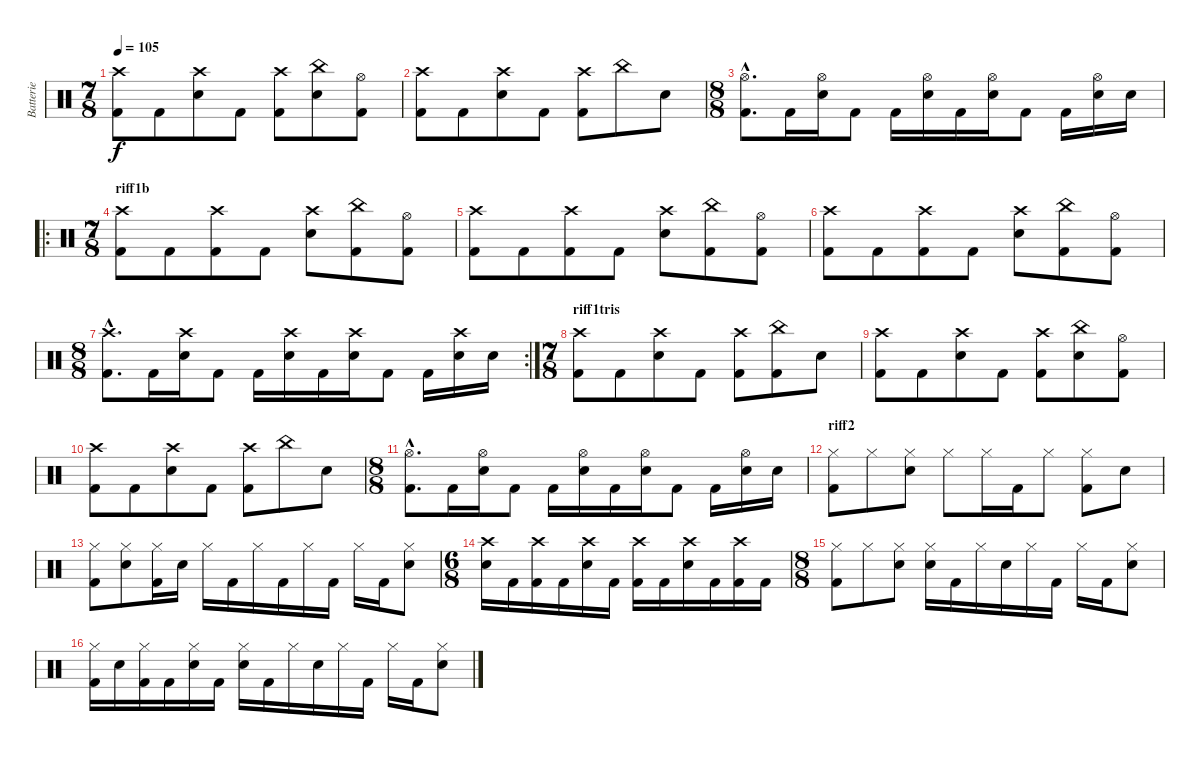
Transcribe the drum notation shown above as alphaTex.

\track ("Batterie" "Batterie") {instrument percussion}
\staff {score}
\articulation defaults
\ts (7 8)
\tempo 105
\clef neutral
\ks c
("Kick (hit) 2" "Crash high (hit)").8{dy f} "Kick (hit) 2".8 ("Electric Snare (hit)" "Crash high (hit)").8 "Kick (hit) 2".8 ("Kick (hit) 2" "Crash high (hit)").8 ("Electric Snare (hit)" "China (hit)").8 ("Kick (hit) 2" "Hi-Hat (open)").8 |
("Kick (hit) 2" "Crash high (hit)").8 "Kick (hit) 2".8 ("Electric Snare (hit)" "Crash high (hit)").8 "Kick (hit) 2".8 ("Kick (hit) 2" "Crash high (hit)").8 "China (hit)".8 "Electric Snare (hit)".8 |
\ts (8 8)
("Kick (hit) 2"{hac} "Hi-Hat (open)"{hac}).8{d} "Kick (hit) 2".16 ("Electric Snare (hit)" "Hi-Hat (open)").16 "Kick (hit) 2".8 "Kick (hit) 2".16 ("Electric Snare (hit)" "Hi-Hat (open)").16 "Kick (hit) 2".16 ("Electric Snare (hit)" "Hi-Hat (open)").16 "Kick (hit) 2".8 "Kick (hit) 2".16 ("Electric Snare (hit)" "Hi-Hat (open)").16 "Electric Snare (hit)".16 |
\ro
\ts (7 8)
\section ("" "riff1b")
("Kick (hit) 2" "Crash high (hit)").8 "Kick (hit) 2".8 ("Kick (hit) 2" "Crash high (hit)").8 "Kick (hit) 2".8 ("Electric Snare (hit)" "Crash high (hit)").8 ("Kick (hit) 2" "China (hit)").8 ("Kick (hit) 2" "Hi-Hat (open)").8 |
("Kick (hit) 2" "Crash high (hit)").8 "Kick (hit) 2".8 ("Kick (hit) 2" "Crash high (hit)").8 "Kick (hit) 2".8 ("Electric Snare (hit)" "Crash high (hit)").8 ("Kick (hit) 2" "China (hit)").8 ("Kick (hit) 2" "Hi-Hat (open)").8 |
("Kick (hit) 2" "Crash high (hit)").8 "Kick (hit) 2".8 ("Kick (hit) 2" "Crash high (hit)").8 "Kick (hit) 2".8 ("Electric Snare (hit)" "Crash high (hit)").8 ("Kick (hit) 2" "China (hit)").8 ("Kick (hit) 2" "Hi-Hat (open)").8 |
\rc 2
\ts (8 8)
("Kick (hit) 2"{hac} "Crash high (hit)"{hac}).8{d} "Kick (hit) 2".16 ("Electric Snare (hit)" "Crash high (hit)").16 "Kick (hit) 2".8 "Kick (hit) 2".16 ("Electric Snare (hit)" "Crash high (hit)").16 "Kick (hit) 2".16 ("Electric Snare (hit)" "Crash high (hit)").16 "Kick (hit) 2".8 "Kick (hit) 2".16 ("Electric Snare (hit)" "Crash high (hit)").16 "Electric Snare (hit)".16 |
\ts (7 8)
\section ("" "riff1tris")
("Kick (hit) 2" "Crash high (hit)").8 "Kick (hit) 2".8 ("Electric Snare (hit)" "Crash high (hit)").8 "Kick (hit) 2".8 ("Kick (hit) 2" "Crash high (hit)").8 ("Kick (hit) 2" "China (hit)").8 "Electric Snare (hit)".8 |
("Kick (hit) 2" "Crash high (hit)").8 "Kick (hit) 2".8 ("Electric Snare (hit)" "Crash high (hit)").8 "Kick (hit) 2".8 ("Kick (hit) 2" "Crash high (hit)").8 ("Electric Snare (hit)" "China (hit)").8 ("Kick (hit) 2" "Hi-Hat (open)").8 |
("Kick (hit) 2" "Crash high (hit)").8 "Kick (hit) 2".8 ("Electric Snare (hit)" "Crash high (hit)").8 "Kick (hit) 2".8 ("Kick (hit) 2" "Crash high (hit)").8 "China (hit)".8 "Electric Snare (hit)".8 |
\ts (8 8)
("Kick (hit) 2"{hac} "Hi-Hat (open)"{hac}).8{d} "Kick (hit) 2".16 ("Electric Snare (hit)" "Hi-Hat (open)").16 "Kick (hit) 2".8 "Kick (hit) 2".16 ("Electric Snare (hit)" "Hi-Hat (open)").16 "Kick (hit) 2".16 ("Electric Snare (hit)" "Hi-Hat (open)").16 "Kick (hit) 2".8 "Kick (hit) 2".16 ("Electric Snare (hit)" "Hi-Hat (open)").16 "Electric Snare (hit)".16 |
\section ("" "riff2")
("Kick (hit) 2" "Hi-Hat (closed)").8 "Hi-Hat (closed)".8 ("Electric Snare (hit)" "Hi-Hat (closed)").8 "Hi-Hat (closed)".8 "Hi-Hat (closed)".16 "Kick (hit) 2".16 "Hi-Hat (closed)".8 ("Kick (hit) 2" "Hi-Hat (closed)").8 "Electric Snare (hit)".8 |
("Kick (hit) 2" "Hi-Hat (closed)").8 ("Electric Snare (hit)" "Hi-Hat (closed)").8 ("Kick (hit) 2" "Hi-Hat (closed)").16 "Electric Snare (hit)".16 "Hi-Hat (closed)".16 "Kick (hit) 2".16 "Hi-Hat (closed)".16 "Kick (hit) 2".16 "Hi-Hat (closed)".16 "Kick (hit) 2".16 "Hi-Hat (closed)".16 "Kick (hit) 2".16 ("Electric Snare (hit)" "Hi-Hat (closed)").8 |
\ts (6 8)
("Electric Snare (hit)" "Crash high (hit)").16 "Kick (hit) 2".16 ("Kick (hit) 2" "Crash high (hit)").16 "Kick (hit) 2".16 ("Electric Snare (hit)" "Crash high (hit)").16 "Kick (hit) 2".16 ("Kick (hit) 2" "Crash high (hit)").16 "Kick (hit) 2".16 ("Electric Snare (hit)" "Crash high (hit)").16 "Kick (hit) 2".16 ("Kick (hit) 2" "Crash high (hit)").16 "Kick (hit) 2".16 |
\ts (8 8)
("Kick (hit) 2" "Hi-Hat (closed)").8 "Hi-Hat (closed)".8 ("Electric Snare (hit)" "Hi-Hat (closed)").8 ("Electric Snare (hit)" "Hi-Hat (closed)").16 "Kick (hit) 2".16 "Hi-Hat (closed)".16 "Electric Snare (hit)".16 "Hi-Hat (closed)".16 "Kick (hit) 2".16 "Hi-Hat (closed)".16 "Kick (hit) 2".16 ("Electric Snare (hit)" "Hi-Hat (closed)").8 |
("Kick (hit) 2" "Hi-Hat (closed)").16 "Electric Snare (hit)".16 ("Kick (hit) 2" "Hi-Hat (closed)").16 "Kick (hit) 2".16 ("Electric Snare (hit)" "Hi-Hat (closed)").16 "Kick (hit) 2".16 ("Electric Snare (hit)" "Hi-Hat (closed)").16 "Kick (hit) 2".16 "Hi-Hat (closed)".16 "Electric Snare (hit)".16 "Hi-Hat (closed)".16 "Kick (hit) 2".16 "Hi-Hat (closed)".16 "Kick (hit) 2".16 ("Electric Snare (hit)" "Hi-Hat (closed)").8
